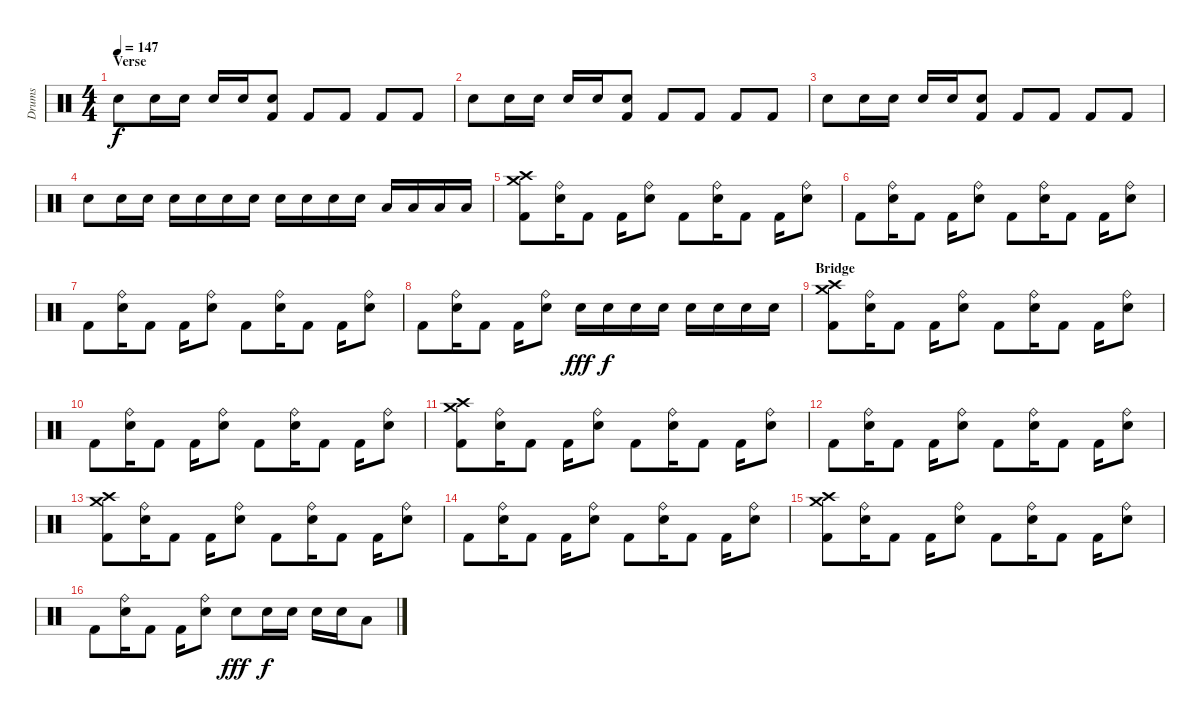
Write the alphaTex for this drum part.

\track ("Drums" "Drums") {instrument percussion}
\staff {score}
\articulation defaults
\ts (4 4)
\section ("" "Verse")
\tempo 147
\clef neutral
\ks c "Electric Snare (hit)".8{dy f} "Electric Snare (hit)".16 "Electric Snare (hit)".16 "Electric Snare (hit)".16 "Electric Snare (hit)".16
("Electric Snare (hit)" "Kick (hit) 2").8 "Kick (hit) 2".8 "Kick (hit) 2".8 "Kick (hit) 2".8 "Kick (hit) 2".8 |
"Electric Snare (hit)".8 "Electric Snare (hit)".16 "Electric Snare (hit)".16 "Electric Snare (hit)".16 "Electric Snare (hit)".16 ("Electric Snare (hit)" "Kick (hit) 2").8 "Kick (hit) 2".8 "Kick (hit) 2".8 "Kick (hit) 2".8 "Kick (hit) 2".8 |
"Electric Snare (hit)".8 "Electric Snare (hit)".16 "Electric Snare (hit)".16 "Electric Snare (hit)".16 "Electric Snare (hit)".16 ("Electric Snare (hit)" "Kick (hit) 2").8 "Kick (hit) 2".8 "Kick (hit) 2".8 "Kick (hit) 2".8 "Kick (hit) 2".8 |
"Electric Snare (hit)".8 "Electric Snare (hit)".16 "Electric Snare (hit)".16 "Electric Snare (hit)".16 "Electric Snare (hit)".16 "Electric Snare (hit)".16 "Electric Snare (hit)".16 "Electric Snare (hit)".16 "Electric Snare (hit)".16 "Electric Snare (hit)".16 "Electric Snare (hit)".16 "Low Tom (hit)".16 "Low Tom (hit)".16 "Low Tom (hit)".16 "Low Tom (hit)".16 |
("Crash high (hit)" "Crash medium (hit)" "Kick (hit) 2").8 ("Ride (bell)" "Electric Snare (hit)").16 "Kick (hit) 2".8 "Kick (hit) 2".16 ("Ride (bell)" "Electric Snare (hit)").8 "Kick (hit) 2".8 ("Ride (bell)" "Electric Snare (hit)").16 "Kick (hit) 2".8 "Kick (hit) 2".16 ("Ride (bell)" "Electric Snare (hit)").8 |
"Kick (hit) 2".8 ("Ride (bell)" "Electric Snare (hit)").16 "Kick (hit) 2".8 "Kick (hit) 2".16 ("Ride (bell)" "Electric Snare (hit)").8 "Kick (hit) 2".8 ("Ride (bell)" "Electric Snare (hit)").16 "Kick (hit) 2".8 "Kick (hit) 2".16 ("Ride (bell)" "Electric Snare (hit)").8 |
"Kick (hit) 2".8 ("Ride (bell)" "Electric Snare (hit)").16 "Kick (hit) 2".8 "Kick (hit) 2".16 ("Ride (bell)" "Electric Snare (hit)").8 "Kick (hit) 2".8 ("Ride (bell)" "Electric Snare (hit)").16 "Kick (hit) 2".8 "Kick (hit) 2".16 ("Ride (bell)" "Electric Snare (hit)").8 |
"Kick (hit) 2".8 ("Ride (bell)" "Electric Snare (hit)").16 "Kick (hit) 2".8 "Kick (hit) 2".16 ("Ride (bell)" "Electric Snare (hit)").8 "Electric Snare (hit)".16{dy fff} "Electric Snare (hit)".16{dy f} "Electric Snare (hit)".16 "Electric Snare (hit)".16 "Electric Snare (hit)".16 "Electric Snare (hit)".16 "Electric Snare (hit)".16 "Electric Snare (hit)".16 |
\section ("" "Bridge")
("Crash high (hit)" "Crash medium (hit)" "Kick (hit) 2").8 ("Ride (bell)" "Electric Snare (hit)").16 "Kick (hit) 2".8 "Kick (hit) 2".16 ("Ride (bell)" "Electric Snare (hit)").8 "Kick (hit) 2".8 ("Ride (bell)" "Electric Snare (hit)").16 "Kick (hit) 2".8 "Kick (hit) 2".16 ("Ride (bell)" "Electric Snare (hit)").8 |
"Kick (hit) 2".8 ("Ride (bell)" "Electric Snare (hit)").16 "Kick (hit) 2".8 "Kick (hit) 2".16 ("Ride (bell)" "Electric Snare (hit)").8 "Kick (hit) 2".8 ("Ride (bell)" "Electric Snare (hit)").16 "Kick (hit) 2".8 "Kick (hit) 2".16 ("Ride (bell)" "Electric Snare (hit)").8 |
("Crash high (hit)" "Crash medium (hit)" "Kick (hit) 2").8 ("Ride (bell)" "Electric Snare (hit)").16 "Kick (hit) 2".8 "Kick (hit) 2".16 ("Ride (bell)" "Electric Snare (hit)").8 "Kick (hit) 2".8 ("Ride (bell)" "Electric Snare (hit)").16 "Kick (hit) 2".8 "Kick (hit) 2".16 ("Ride (bell)" "Electric Snare (hit)").8 |
"Kick (hit) 2".8 ("Ride (bell)" "Electric Snare (hit)").16 "Kick (hit) 2".8 "Kick (hit) 2".16 ("Ride (bell)" "Electric Snare (hit)").8 "Kick (hit) 2".8 ("Ride (bell)" "Electric Snare (hit)").16 "Kick (hit) 2".8 "Kick (hit) 2".16 ("Ride (bell)" "Electric Snare (hit)").8 |
("Crash high (hit)" "Crash medium (hit)" "Kick (hit) 2").8 ("Ride (bell)" "Electric Snare (hit)").16 "Kick (hit) 2".8 "Kick (hit) 2".16 ("Ride (bell)" "Electric Snare (hit)").8 "Kick (hit) 2".8 ("Ride (bell)" "Electric Snare (hit)").16 "Kick (hit) 2".8 "Kick (hit) 2".16 ("Ride (bell)" "Electric Snare (hit)").8 |
"Kick (hit) 2".8 ("Ride (bell)" "Electric Snare (hit)").16 "Kick (hit) 2".8 "Kick (hit) 2".16 ("Ride (bell)" "Electric Snare (hit)").8 "Kick (hit) 2".8 ("Ride (bell)" "Electric Snare (hit)").16 "Kick (hit) 2".8 "Kick (hit) 2".16 ("Ride (bell)" "Electric Snare (hit)").8 |
("Crash high (hit)" "Crash medium (hit)" "Kick (hit) 2").8 ("Ride (bell)" "Electric Snare (hit)").16 "Kick (hit) 2".8 "Kick (hit) 2".16 ("Ride (bell)" "Electric Snare (hit)").8 "Kick (hit) 2".8 ("Ride (bell)" "Electric Snare (hit)").16 "Kick (hit) 2".8 "Kick (hit) 2".16 ("Ride (bell)" "Electric Snare (hit)").8 |
"Kick (hit) 2".8 ("Ride (bell)" "Electric Snare (hit)").16 "Kick (hit) 2".8 "Kick (hit) 2".16 ("Ride (bell)" "Electric Snare (hit)").8 "Electric Snare (hit)".8{dy fff} "Electric Snare (hit)".16{dy f} "Electric Snare (hit)".16 "Electric Snare (hit)".16 "Electric Snare (hit)".16 "Low Tom (hit)".8
